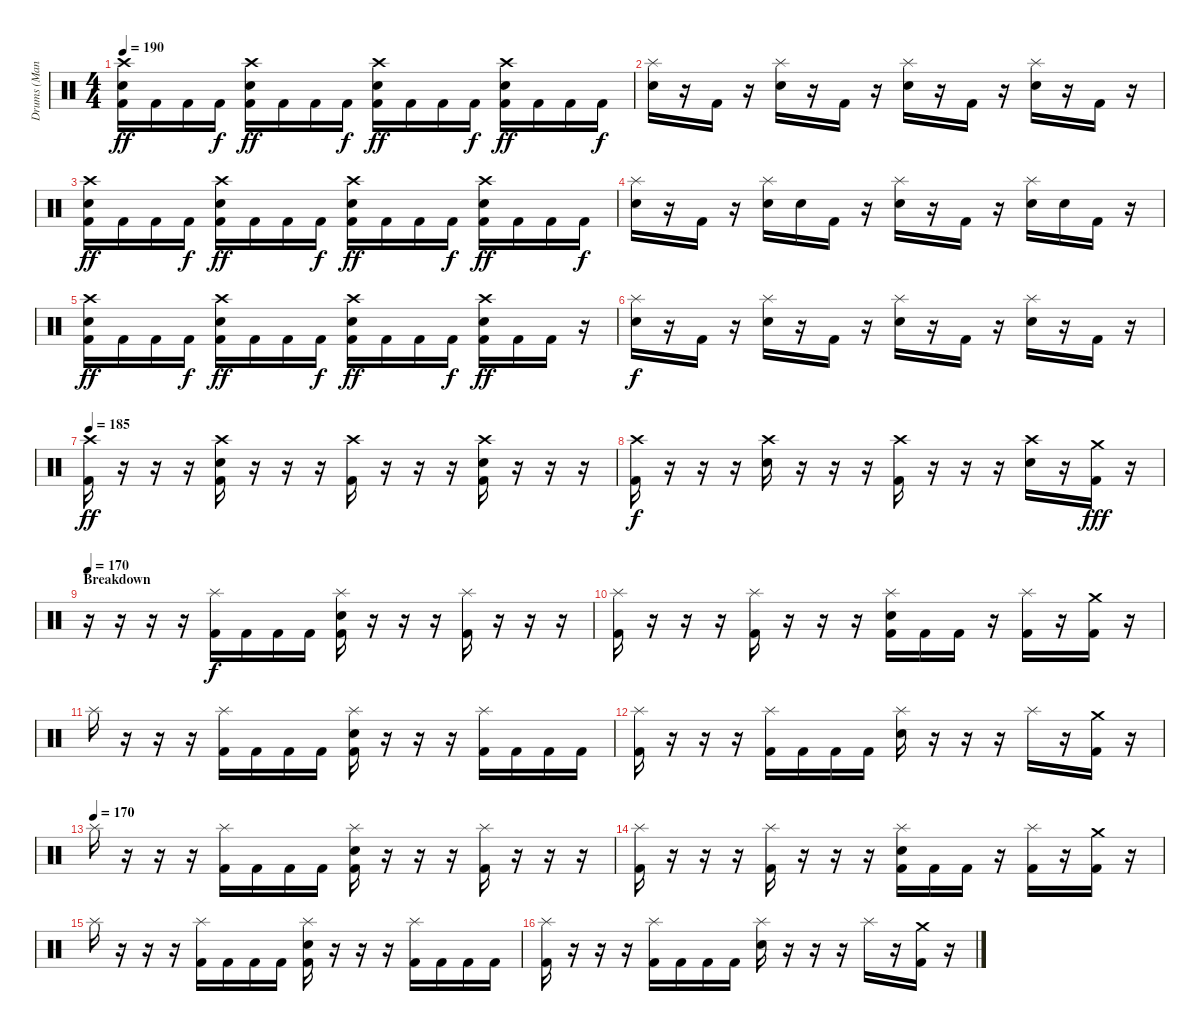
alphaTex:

\track ("Drums (Mancino)" "Drums (Man") {instrument percussion}
\staff {score}
\articulation defaults
\ts (4 4)
\tempo 190
\clef neutral
\ks c
("Crash high (hit)" "Electric Snare (hit)" "Kick (hit) 2").16{dy ff} "Kick (hit) 2".16 "Kick (hit) 2".16 "Kick (hit) 2".16{dy f} ("Crash high (hit)" "Electric Snare (hit)" "Kick (hit) 2").16{dy ff} "Kick (hit) 2".16 "Kick (hit) 2".16 "Kick (hit) 2".16{dy f} ("Crash high (hit)" "Electric Snare (hit)" "Kick (hit) 2").16{dy ff} "Kick (hit) 2".16 "Kick (hit) 2".16 "Kick (hit) 2".16{dy f} ("Crash high (hit)" "Electric Snare (hit)" "Kick (hit) 2").16{dy ff} "Kick (hit) 2".16 "Kick (hit) 2".16 "Kick (hit) 2".16{dy f} |
("Splash (hit)" "Electric Snare (hit)").16 r.16 "Kick (hit) 2".16 r.16 ("Splash (hit)" "Electric Snare (hit)").16 r.16 "Kick (hit) 2".16 r.16 ("Splash (hit)" "Electric Snare (hit)").16 r.16 "Kick (hit) 2".16 r.16 ("Splash (hit)" "Electric Snare (hit)").16 r.16 "Kick (hit) 2".16 r.16 |
("Crash high (hit)" "Electric Snare (hit)" "Kick (hit) 2").16{dy ff} "Kick (hit) 2".16 "Kick (hit) 2".16 "Kick (hit) 2".16{dy f} ("Crash high (hit)" "Electric Snare (hit)" "Kick (hit) 2").16{dy ff} "Kick (hit) 2".16 "Kick (hit) 2".16 "Kick (hit) 2".16{dy f} ("Crash high (hit)" "Electric Snare (hit)" "Kick (hit) 2").16{dy ff} "Kick (hit) 2".16 "Kick (hit) 2".16 "Kick (hit) 2".16{dy f} ("Crash high (hit)" "Electric Snare (hit)" "Kick (hit) 2").16{dy ff} "Kick (hit) 2".16 "Kick (hit) 2".16 "Kick (hit) 2".16{dy f} |
("Splash (hit)" "Electric Snare (hit)").16 r.16 "Kick (hit) 2".16 r.16 ("Splash (hit)" "Electric Snare (hit)").16 "Electric Snare (hit)".16 "Kick (hit) 2".16 r.16 ("Splash (hit)" "Electric Snare (hit)").16 r.16 "Kick (hit) 2".16 r.16 ("Splash (hit)" "Electric Snare (hit)").16 "Electric Snare (hit)".16 "Kick (hit) 2".16 r.16 |
("Crash high (hit)" "Electric Snare (hit)" "Kick (hit) 2").16{dy ff} "Kick (hit) 2".16 "Kick (hit) 2".16 "Kick (hit) 2".16{dy f} ("Crash high (hit)" "Electric Snare (hit)" "Kick (hit) 2").16{dy ff} "Kick (hit) 2".16 "Kick (hit) 2".16 "Kick (hit) 2".16{dy f} ("Crash high (hit)" "Electric Snare (hit)" "Kick (hit) 2").16{dy ff} "Kick (hit) 2".16 "Kick (hit) 2".16 "Kick (hit) 2".16{dy f} ("Crash high (hit)" "Electric Snare (hit)" "Kick (hit) 2").16{dy ff} "Kick (hit) 2".16 "Kick (hit) 2".16 r.16 |
("Splash (hit)" "Electric Snare (hit)").16{dy f} r.16 "Kick (hit) 2".16 r.16 ("Splash (hit)" "Electric Snare (hit)").16 r.16 "Kick (hit) 2".16 r.16 ("Splash (hit)" "Electric Snare (hit)").16 r.16 "Kick (hit) 2".16 r.16 ("Splash (hit)" "Electric Snare (hit)").16 r.16 "Kick (hit) 2".16 r.16 |
\tempo 185
("Crash high (hit)" "Kick (hit) 2").16{dy ff} r.16 r.16 r.16 ("Crash high (hit)" "Electric Snare (hit)" "Kick (hit) 2").16 r.16 r.16 r.16 ("Crash high (hit)" "Kick (hit) 2").16 r.16 r.16 r.16 ("Crash high (hit)" "Electric Snare (hit)" "Kick (hit) 2").16 r.16 r.16 r.16 |
("Crash high (hit)" "Kick (hit) 2").16{dy f} r.16 r.16 r.16 ("Crash high (hit)" "Electric Snare (hit)").16 r.16 r.16 r.16 ("Crash high (hit)" "Kick (hit) 2").16 r.16 r.16 r.16 ("Crash high (hit)" "Electric Snare (hit)").16 r.16 ("Crash medium (hit)" "Kick (hit) 2").16{dy fff} r.16 |
\section ("" "Breakdown")
\tempo 170
r.16 r.16 r.16 r.16 ("Splash (hit)" "Kick (hit) 2").16{dy f} "Kick (hit) 2".16 "Kick (hit) 2".16 "Kick (hit) 2".16 ("Splash (hit)" "Electric Snare (hit)" "Kick (hit) 2").16 r.16 r.16 r.16 ("Splash (hit)" "Kick (hit) 2").16 r.16 r.16 r.16 |
("Splash (hit)" "Kick (hit) 2").16 r.16 r.16 r.16 ("Splash (hit)" "Kick (hit) 2").16 r.16 r.16 r.16 ("Splash (hit)" "Electric Snare (hit)" "Kick (hit) 2").16 "Kick (hit) 2".16 "Kick (hit) 2".16 r.16 ("Splash (hit)" "Kick (hit) 2").16 r.16 ("Crash medium (hit)" "Kick (hit) 2").16 r.16 |
"Splash (hit)".16 r.16 r.16 r.16 ("Splash (hit)" "Kick (hit) 2").16 "Kick (hit) 2".16 "Kick (hit) 2".16 "Kick (hit) 2".16 ("Splash (hit)" "Electric Snare (hit)" "Kick (hit) 2").16 r.16 r.16 r.16 ("Splash (hit)" "Kick (hit) 2").16 "Kick (hit) 2".16 "Kick (hit) 2".16 "Kick (hit) 2".16 |
("Splash (hit)" "Kick (hit) 2").16 r.16 r.16 r.16 ("Splash (hit)" "Kick (hit) 2").16 "Kick (hit) 2".16 "Kick (hit) 2".16 "Kick (hit) 2".16 ("Splash (hit)" "Electric Snare (hit)").16 r.16 r.16 r.16 "Splash (hit)".16 r.16 ("Crash medium (hit)" "Kick (hit) 2").16 r.16 |
\tempo (170)
"Splash (hit)".16 r.16 r.16 r.16 ("Splash (hit)" "Kick (hit) 2").16 "Kick (hit) 2".16 "Kick (hit) 2".16 "Kick (hit) 2".16 ("Splash (hit)" "Electric Snare (hit)" "Kick (hit) 2").16 r.16 r.16 r.16 ("Splash (hit)" "Kick (hit) 2").16 r.16 r.16 r.16 |
("Splash (hit)" "Kick (hit) 2").16 r.16 r.16 r.16 ("Splash (hit)" "Kick (hit) 2").16 r.16 r.16 r.16 ("Splash (hit)" "Electric Snare (hit)" "Kick (hit) 2").16 "Kick (hit) 2".16 "Kick (hit) 2".16 r.16 ("Splash (hit)" "Kick (hit) 2").16 r.16 ("Crash medium (hit)" "Kick (hit) 2").16 r.16 |
"Splash (hit)".16 r.16 r.16 r.16 ("Splash (hit)" "Kick (hit) 2").16 "Kick (hit) 2".16 "Kick (hit) 2".16 "Kick (hit) 2".16 ("Splash (hit)" "Electric Snare (hit)" "Kick (hit) 2").16 r.16 r.16 r.16 ("Splash (hit)" "Kick (hit) 2").16 "Kick (hit) 2".16 "Kick (hit) 2".16 "Kick (hit) 2".16 |
("Splash (hit)" "Kick (hit) 2").16 r.16 r.16 r.16 ("Splash (hit)" "Kick (hit) 2").16 "Kick (hit) 2".16 "Kick (hit) 2".16 "Kick (hit) 2".16 ("Splash (hit)" "Electric Snare (hit)").16 r.16 r.16 r.16 "Splash (hit)".16 r.16 ("Crash medium (hit)" "Kick (hit) 2").16 r.16
